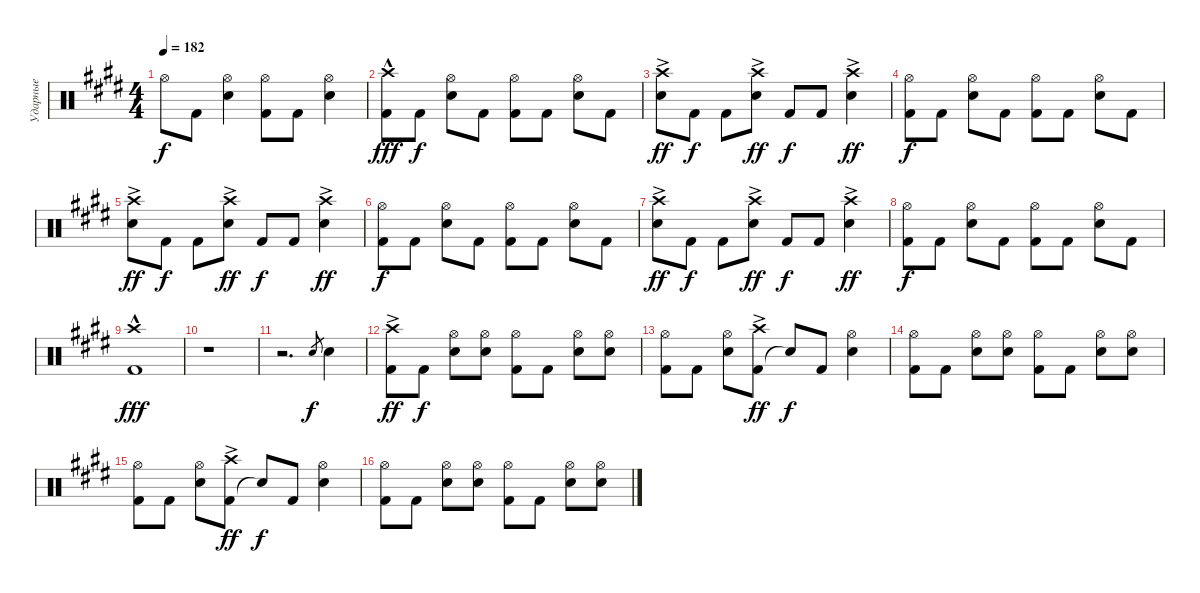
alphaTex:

\track ("Ударные" "Ударные") {instrument percussion}
\staff {score}
\articulation defaults
\ts (4 4)
\tempo 182
\clef neutral
\ks e "Hi-Hat (open)".8{dy f} "Kick (hit) 2".8
("Snare (hit) 2" "Hi-Hat (open)").4 ("Kick (hit) 2" "Hi-Hat (open)").8 "Kick (hit) 2".8 ("Snare (hit) 2" "Hi-Hat (open)").4 |
("Kick (hit) 2" "Crash high (hit)"{hac}).8{dy fff} "Kick (hit) 2".8{dy f} ("Snare (hit) 2" "Hi-Hat (open)").8 "Kick (hit) 2".8 ("Kick (hit) 2" "Hi-Hat (open)").8 "Kick (hit) 2".8 ("Snare (hit) 2" "Hi-Hat (open)").8 "Kick (hit) 2".8 |
("Snare (hit) 2" "Crash high (hit)"{ac}).8{dy ff} "Kick (hit) 2".8{dy f} "Kick (hit) 2".8 ("Snare (hit) 2" "Crash high (hit)"{ac}).8{dy ff} "Kick (hit) 2".8{dy f} "Kick (hit) 2".8 ("Snare (hit) 2" "Crash high (hit)"{ac}).4{dy ff} |
("Kick (hit) 2" "Hi-Hat (open)").8{dy f} "Kick (hit) 2".8 ("Snare (hit) 2" "Hi-Hat (open)").8 "Kick (hit) 2".8 ("Kick (hit) 2" "Hi-Hat (open)").8 "Kick (hit) 2".8 ("Snare (hit) 2" "Hi-Hat (open)").8 "Kick (hit) 2".8 |
("Snare (hit) 2" "Crash high (hit)"{ac}).8{dy ff} "Kick (hit) 2".8{dy f} "Kick (hit) 2".8 ("Snare (hit) 2" "Crash high (hit)"{ac}).8{dy ff} "Kick (hit) 2".8{dy f} "Kick (hit) 2".8 ("Snare (hit) 2" "Crash high (hit)"{ac}).4{dy ff} |
("Kick (hit) 2" "Hi-Hat (open)").8{dy f} "Kick (hit) 2".8 ("Snare (hit) 2" "Hi-Hat (open)").8 "Kick (hit) 2".8 ("Kick (hit) 2" "Hi-Hat (open)").8 "Kick (hit) 2".8 ("Snare (hit) 2" "Hi-Hat (open)").8 "Kick (hit) 2".8 |
("Snare (hit) 2" "Crash high (hit)"{ac}).8{dy ff} "Kick (hit) 2".8{dy f} "Kick (hit) 2".8 ("Snare (hit) 2" "Crash high (hit)"{ac}).8{dy ff} "Kick (hit) 2".8{dy f} "Kick (hit) 2".8 ("Snare (hit) 2" "Crash high (hit)"{ac}).4{dy ff} |
("Kick (hit) 2" "Hi-Hat (open)").8{dy f} "Kick (hit) 2".8 ("Snare (hit) 2" "Hi-Hat (open)").8 "Kick (hit) 2".8 ("Kick (hit) 2" "Hi-Hat (open)").8 "Kick (hit) 2".8 ("Snare (hit) 2" "Hi-Hat (open)").8 "Kick (hit) 2".8 |
("Kick (hit) 2" "Crash high (hit)"{hac}).1{dy fff} |
r.1 |
r.2{d} "Snare (hit) 2".8{gr dy f} "Snare (hit) 2".4 |
("Kick (hit) 2" "Crash high (hit)"{ac}).8{dy ff} "Kick (hit) 2".8{dy f} ("Snare (hit) 2" "Hi-Hat (open)").8 ("Snare (hit) 2" "Hi-Hat (open)").8 ("Kick (hit) 2" "Hi-Hat (open)").8 "Kick (hit) 2".8 ("Snare (hit) 2" "Hi-Hat (open)").8 ("Snare (hit) 2" "Hi-Hat (open)").8 |
("Kick (hit) 2" "Hi-Hat (open)").8 "Kick (hit) 2".8 ("Snare (hit) 2" "Hi-Hat (open)").8 ("Kick (hit) 2" "Crash high (hit)"{ac}).8{dy ff} "Snare (hit)"{t}.8{dy f} "Kick (hit) 2".8 ("Snare (hit) 2" "Hi-Hat (open)").4 |
("Kick (hit) 2" "Hi-Hat (open)").8 "Kick (hit) 2".8 ("Snare (hit) 2" "Hi-Hat (open)").8 ("Snare (hit) 2" "Hi-Hat (open)").8 ("Kick (hit) 2" "Hi-Hat (open)").8 "Kick (hit) 2".8 ("Snare (hit) 2" "Hi-Hat (open)").8 ("Snare (hit) 2" "Hi-Hat (open)").8 |
("Kick (hit) 2" "Hi-Hat (open)").8 "Kick (hit) 2".8 ("Snare (hit) 2" "Hi-Hat (open)").8 ("Kick (hit) 2" "Crash high (hit)"{ac}).8{dy ff} "Snare (hit)"{t}.8{dy f} "Kick (hit) 2".8 ("Snare (hit) 2" "Hi-Hat (open)").4 |
("Kick (hit) 2" "Hi-Hat (open)").8 "Kick (hit) 2".8 ("Snare (hit) 2" "Hi-Hat (open)").8 ("Snare (hit) 2" "Hi-Hat (open)").8 ("Kick (hit) 2" "Hi-Hat (open)").8 "Kick (hit) 2".8 ("Snare (hit) 2" "Hi-Hat (open)").8 ("Snare (hit) 2" "Hi-Hat (open)").8
